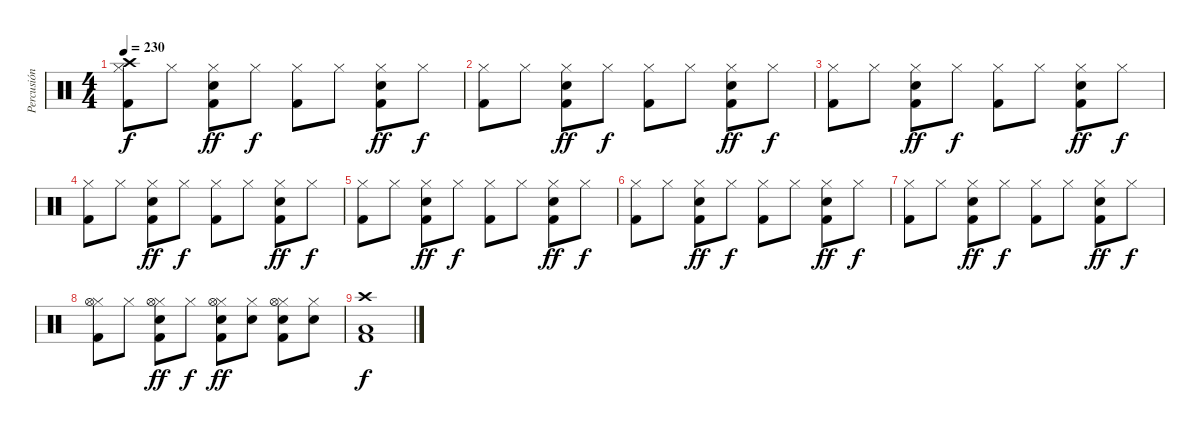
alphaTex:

\track ("Percusión" "Percusión") {instrument percussion}
\staff {score}
\articulation defaults
\ts (4 4)
\tempo 230
\clef neutral
\ks c
("Crash high (hit)" "Hi-Hat (closed)" "Kick (hit) 2").8{dy f} "Hi-Hat (closed)".8 ("Hi-Hat (closed)" "Snare (hit) 2" "Kick (hit) 2").8{dy ff} "Hi-Hat (closed)".8{dy f} ("Hi-Hat (closed)" "Kick (hit) 2").8 "Hi-Hat (closed)".8 ("Hi-Hat (closed)" "Snare (hit) 2" "Kick (hit) 2").8{dy ff} "Hi-Hat (closed)".8{dy f} |
("Hi-Hat (closed)" "Kick (hit) 2").8 "Hi-Hat (closed)".8 ("Hi-Hat (closed)" "Snare (hit) 2" "Kick (hit) 2").8{dy ff} "Hi-Hat (closed)".8{dy f} ("Hi-Hat (closed)" "Kick (hit) 2").8 "Hi-Hat (closed)".8 ("Hi-Hat (closed)" "Snare (hit) 2" "Kick (hit) 2").8{dy ff} "Hi-Hat (closed)".8{dy f} |
("Hi-Hat (closed)" "Kick (hit) 2").8 "Hi-Hat (closed)".8 ("Hi-Hat (closed)" "Snare (hit) 2" "Kick (hit) 2").8{dy ff} "Hi-Hat (closed)".8{dy f} ("Hi-Hat (closed)" "Kick (hit) 2").8 "Hi-Hat (closed)".8 ("Hi-Hat (closed)" "Snare (hit) 2" "Kick (hit) 2").8{dy ff} "Hi-Hat (closed)".8{dy f} |
("Hi-Hat (closed)" "Kick (hit) 2").8 "Hi-Hat (closed)".8 ("Hi-Hat (closed)" "Snare (hit) 2" "Kick (hit) 2").8{dy ff} "Hi-Hat (closed)".8{dy f} ("Hi-Hat (closed)" "Kick (hit) 2").8 "Hi-Hat (closed)".8 ("Hi-Hat (closed)" "Snare (hit) 2" "Kick (hit) 2").8{dy ff} "Hi-Hat (closed)".8{dy f} |
("Hi-Hat (closed)" "Kick (hit) 2").8 "Hi-Hat (closed)".8 ("Hi-Hat (closed)" "Snare (hit) 2" "Kick (hit) 2").8{dy ff} "Hi-Hat (closed)".8{dy f} ("Hi-Hat (closed)" "Kick (hit) 2").8 "Hi-Hat (closed)".8 ("Hi-Hat (closed)" "Snare (hit) 2" "Kick (hit) 2").8{dy ff} "Hi-Hat (closed)".8{dy f} |
("Hi-Hat (closed)" "Kick (hit) 2").8 "Hi-Hat (closed)".8 ("Hi-Hat (closed)" "Snare (hit) 2" "Kick (hit) 2").8{dy ff} "Hi-Hat (closed)".8{dy f} ("Hi-Hat (closed)" "Kick (hit) 2").8 "Hi-Hat (closed)".8 ("Hi-Hat (closed)" "Snare (hit) 2" "Kick (hit) 2").8{dy ff} "Hi-Hat (closed)".8{dy f} |
("Hi-Hat (closed)" "Kick (hit) 2").8 "Hi-Hat (closed)".8 ("Hi-Hat (closed)" "Snare (hit) 2" "Kick (hit) 2").8{dy ff} "Hi-Hat (closed)".8{dy f} ("Hi-Hat (closed)" "Kick (hit) 2").8 "Hi-Hat (closed)".8 ("Hi-Hat (closed)" "Snare (hit) 2" "Kick (hit) 2").8{dy ff} "Hi-Hat (closed)".8{dy f} |
("Hi-Hat (closed)" "Kick (hit) 2" "Hi-Hat (open)").8 "Hi-Hat (closed)".8 ("Hi-Hat (closed)" "Snare (hit) 2" "Kick (hit) 2" "Hi-Hat (open)").8{dy ff} "Hi-Hat (closed)".8{dy f} ("Hi-Hat (closed)" "Snare (hit) 2" "Kick (hit) 2" "Hi-Hat (open)").8{dy ff} ("Hi-Hat (closed)" "Snare (hit) 2").8 ("Hi-Hat (closed)" "Snare (hit) 2" "Kick (hit) 2" "Hi-Hat (open)").8 ("Hi-Hat (closed)" "Snare (hit) 2").8 |
("Crash high (hit)" "Kick (hit) 2" "Low Tom (hit)").1{dy f}
